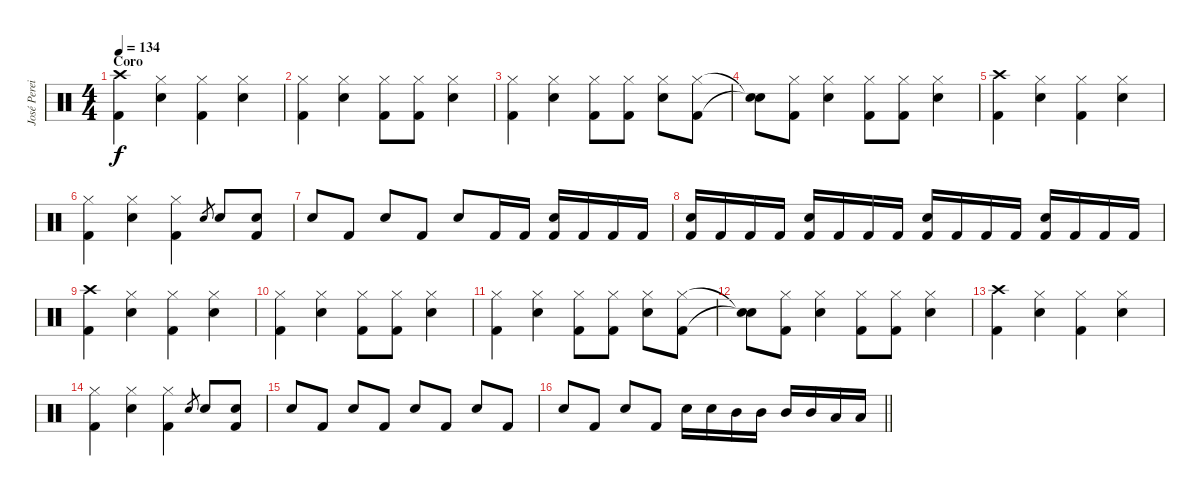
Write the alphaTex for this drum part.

\track ("José Pereira" "José Perei") {instrument percussion}
\staff {score}
\articulation defaults
\ts (4 4)
\section ("" "Coro")
\tempo 134
\clef neutral
\ks c
("Crash high (hit)" "Kick (hit) 2").4{dy f} ("Hi-Hat (closed)" "Snare (hit) 2").4 ("Hi-Hat (closed)" "Kick (hit) 2").4 ("Hi-Hat (closed)" "Snare (hit) 2").4 |
("Hi-Hat (closed)" "Kick (hit) 2").4 ("Hi-Hat (closed)" "Snare (hit) 2").4 ("Hi-Hat (closed)" "Kick (hit) 2").8 ("Hi-Hat (closed)" "Kick (hit) 2").8 ("Hi-Hat (closed)" "Snare (hit) 2").4 |
("Hi-Hat (closed)" "Kick (hit) 2").4 ("Hi-Hat (closed)" "Snare (hit) 2").4 ("Hi-Hat (closed)" "Kick (hit) 2").8 ("Hi-Hat (closed)" "Kick (hit) 2").8 ("Hi-Hat (closed)" "Snare (hit) 2").8 ("Hi-Hat (closed)" "Kick (hit) 2").8 |
("Snare (hit)"{t} "Snare (hit)"{t}).8 ("Hi-Hat (closed)" "Kick (hit) 2").8 ("Hi-Hat (closed)" "Snare (hit) 2").4 ("Hi-Hat (closed)" "Kick (hit) 2").8 ("Hi-Hat (closed)" "Kick (hit) 2").8 ("Hi-Hat (closed)" "Snare (hit) 2").4 |
("Crash high (hit)" "Kick (hit) 2").4 ("Hi-Hat (closed)" "Snare (hit) 2").4 ("Hi-Hat (closed)" "Kick (hit) 2").4 ("Hi-Hat (closed)" "Snare (hit) 2").4 |
("Hi-Hat (closed)" "Kick (hit) 2").4 ("Hi-Hat (closed)" "Snare (hit) 2").4 ("Hi-Hat (closed)" "Kick (hit) 2").4 "Snare (hit) 2".8{gr} "Snare (hit) 2".8 ("Electric Snare (hit)" "Kick (hit) 2").8 |
"Snare (hit) 2".8 "Kick (hit) 2".8 "Snare (hit) 2".8 "Kick (hit) 2".8 "Snare (hit) 2".8 "Kick (hit) 2".16 "Kick (hit) 2".16 ("Snare (hit) 2" "Kick (hit) 2").16 "Kick (hit) 2".16 "Kick (hit) 2".16 "Kick (hit) 2".16 |
("Snare (hit) 2" "Kick (hit) 2").16 "Kick (hit) 2".16 "Kick (hit) 2".16 "Kick (hit) 2".16 ("Snare (hit) 2" "Kick (hit) 2").16 "Kick (hit) 2".16 "Kick (hit) 2".16 "Kick (hit) 2".16 ("Snare (hit) 2" "Kick (hit) 2").16 "Kick (hit) 2".16 "Kick (hit) 2".16 "Kick (hit) 2".16 ("Snare (hit) 2" "Kick (hit) 2").16 "Kick (hit) 2".16 "Kick (hit) 2".16 "Kick (hit) 2".16 |
("Crash high (hit)" "Kick (hit) 2").4 ("Hi-Hat (closed)" "Snare (hit) 2").4 ("Hi-Hat (closed)" "Kick (hit) 2").4 ("Hi-Hat (closed)" "Snare (hit) 2").4 |
("Hi-Hat (closed)" "Kick (hit) 2").4 ("Hi-Hat (closed)" "Snare (hit) 2").4 ("Hi-Hat (closed)" "Kick (hit) 2").8 ("Hi-Hat (closed)" "Kick (hit) 2").8 ("Hi-Hat (closed)" "Snare (hit) 2").4 |
("Hi-Hat (closed)" "Kick (hit) 2").4 ("Hi-Hat (closed)" "Snare (hit) 2").4 ("Hi-Hat (closed)" "Kick (hit) 2").8 ("Hi-Hat (closed)" "Kick (hit) 2").8 ("Hi-Hat (closed)" "Snare (hit) 2").8 ("Hi-Hat (closed)" "Kick (hit) 2").8 |
("Snare (hit)"{t} "Snare (hit)"{t}).8 ("Hi-Hat (closed)" "Kick (hit) 2").8 ("Hi-Hat (closed)" "Snare (hit) 2").4 ("Hi-Hat (closed)" "Kick (hit) 2").8 ("Hi-Hat (closed)" "Kick (hit) 2").8 ("Hi-Hat (closed)" "Snare (hit) 2").4 |
("Crash high (hit)" "Kick (hit) 2").4 ("Hi-Hat (closed)" "Snare (hit) 2").4 ("Hi-Hat (closed)" "Kick (hit) 2").4 ("Hi-Hat (closed)" "Snare (hit) 2").4 |
("Hi-Hat (closed)" "Kick (hit) 2").4 ("Hi-Hat (closed)" "Snare (hit) 2").4 ("Hi-Hat (closed)" "Kick (hit) 2").4 "Snare (hit) 2".8{gr} "Snare (hit) 2".8 ("Electric Snare (hit)" "Kick (hit) 2").8 |
"Snare (hit) 2".8 "Kick (hit) 2".8 "Snare (hit) 2".8 "Kick (hit) 2".8 "Snare (hit) 2".8 "Kick (hit) 2".8 "Snare (hit) 2".8 "Kick (hit) 2".8 |
\barLineRight lightlight "Snare (hit) 2".8 "Kick (hit) 2".8 "Snare (hit) 2".8 "Kick (hit) 2".8 "Snare (hit) 2".16 "Snare (hit) 2".16 "Mid Tom (hit)".16 "Mid Tom (hit)".16 "Mid Tom (hit)".16 "Mid Tom (hit)".16 "Low Tom (hit)".16 "Low Tom (hit)".16
